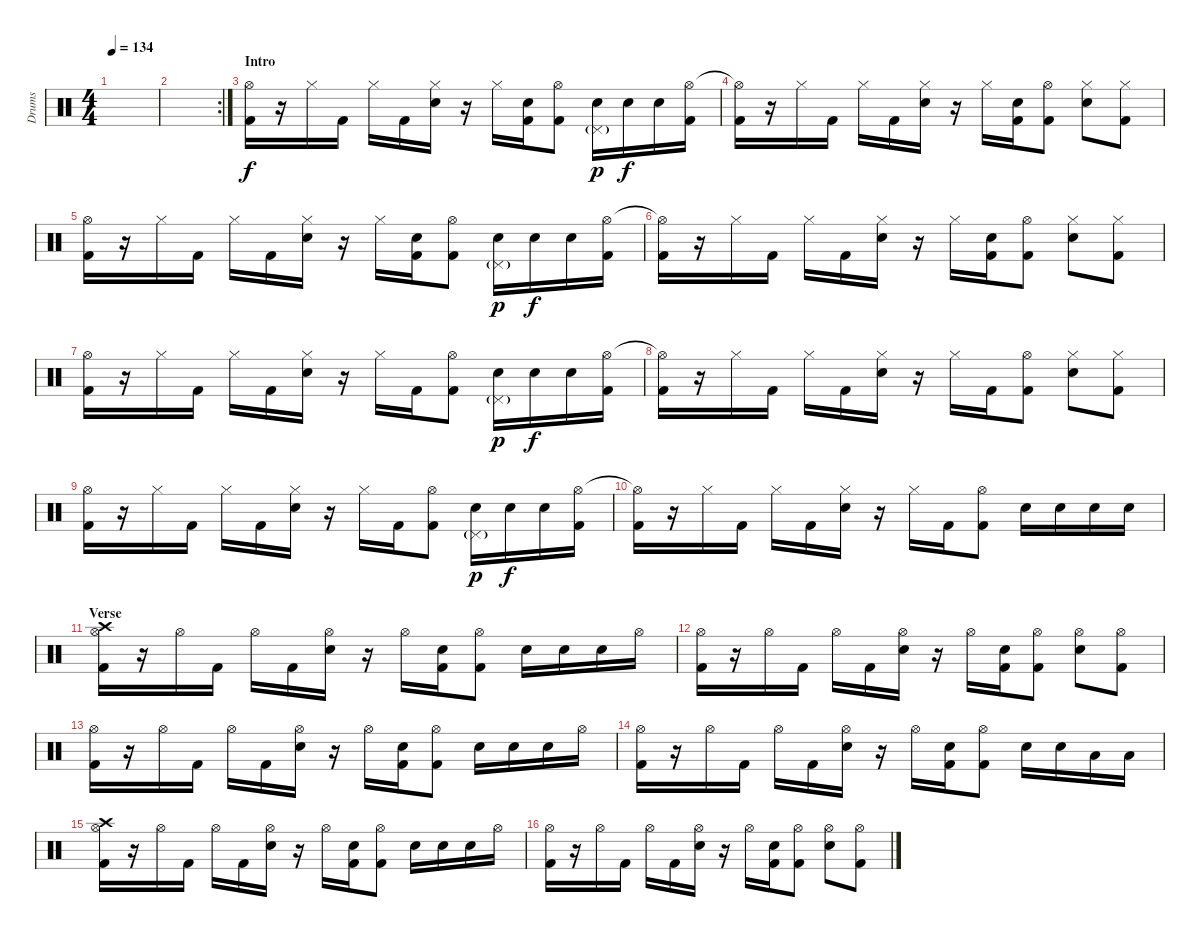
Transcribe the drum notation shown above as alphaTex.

\track ("Drums" "Drums") {instrument percussion}
\staff {score}
\articulation defaults
\ts (4 4)
\tempo 134
\clef neutral
\ks c
|
\rc 2
|
\section ("" "Intro")
("Hi-Hat (open)" "Kick (hit) 2").16 r.16 "Hi-Hat (closed)".16 "Kick (hit) 2".16 "Hi-Hat (closed)".16 "Kick (hit) 2".16 ("Hi-Hat (closed)" "Electric Snare (hit)").16 r.16 "Hi-Hat (closed)".16 ("Electric Snare (hit)" "Kick (hit) 2").16 ("Hi-Hat (open)" "Kick (hit) 2").8 ("Pedal Hi-Hat (hit)"{g} "Electric Snare (hit)").16{dy p} "Electric Snare (hit)".16{dy f} "Electric Snare (hit)".16 ("Hi-Hat (open)" "Kick (hit) 2").16 |
("Hi-Hat (open)"{t} "Kick (hit) 2").16 r.16 "Hi-Hat (closed)".16 "Kick (hit) 2".16 "Hi-Hat (closed)".16 "Kick (hit) 2".16 ("Hi-Hat (closed)" "Electric Snare (hit)").16 r.16 "Hi-Hat (closed)".16 ("Electric Snare (hit)" "Kick (hit) 2").16 ("Hi-Hat (open)" "Kick (hit) 2").8 ("Hi-Hat (closed)" "Electric Snare (hit)").8 ("Hi-Hat (closed)" "Kick (hit) 2").8 |
("Hi-Hat (open)" "Kick (hit) 2").16 r.16 "Hi-Hat (closed)".16 "Kick (hit) 2".16 "Hi-Hat (closed)".16 "Kick (hit) 2".16 ("Hi-Hat (closed)" "Electric Snare (hit)").16 r.16 "Hi-Hat (closed)".16 ("Electric Snare (hit)" "Kick (hit) 2").16 ("Hi-Hat (open)" "Kick (hit) 2").8 ("Pedal Hi-Hat (hit)"{g} "Electric Snare (hit)").16{dy p} "Electric Snare (hit)".16{dy f} "Electric Snare (hit)".16 ("Hi-Hat (open)" "Kick (hit) 2").16 |
("Hi-Hat (open)"{t} "Kick (hit) 2").16 r.16 "Hi-Hat (closed)".16 "Kick (hit) 2".16 "Hi-Hat (closed)".16 "Kick (hit) 2".16 ("Hi-Hat (closed)" "Electric Snare (hit)").16 r.16 "Hi-Hat (closed)".16 ("Electric Snare (hit)" "Kick (hit) 2").16 ("Hi-Hat (open)" "Kick (hit) 2").8 ("Hi-Hat (closed)" "Electric Snare (hit)").8 ("Hi-Hat (closed)" "Kick (hit) 2").8 |
("Hi-Hat (open)" "Kick (hit) 2").16 r.16 "Hi-Hat (closed)".16 "Kick (hit) 2".16 "Hi-Hat (closed)".16 "Kick (hit) 2".16 ("Hi-Hat (closed)" "Electric Snare (hit)").16 r.16 "Hi-Hat (closed)".16 "Kick (hit) 2".16 ("Hi-Hat (open)" "Kick (hit) 2").8 ("Pedal Hi-Hat (hit)"{g} "Electric Snare (hit)").16{dy p} "Electric Snare (hit)".16{dy f} "Electric Snare (hit)".16 ("Hi-Hat (open)" "Kick (hit) 2").16 |
("Hi-Hat (open)"{t} "Kick (hit) 2").16 r.16 "Hi-Hat (closed)".16 "Kick (hit) 2".16 "Hi-Hat (closed)".16 "Kick (hit) 2".16 ("Hi-Hat (closed)" "Electric Snare (hit)").16 r.16 "Hi-Hat (closed)".16 "Kick (hit) 2".16 ("Hi-Hat (open)" "Kick (hit) 2").8 ("Hi-Hat (closed)" "Electric Snare (hit)").8 ("Hi-Hat (closed)" "Kick (hit) 2").8 |
("Hi-Hat (open)" "Kick (hit) 2").16 r.16 "Hi-Hat (closed)".16 "Kick (hit) 2".16 "Hi-Hat (closed)".16 "Kick (hit) 2".16 ("Hi-Hat (closed)" "Electric Snare (hit)").16 r.16 "Hi-Hat (closed)".16 "Kick (hit) 2".16 ("Hi-Hat (open)" "Kick (hit) 2").8 ("Pedal Hi-Hat (hit)"{g} "Electric Snare (hit)").16{dy p} "Electric Snare (hit)".16{dy f} "Electric Snare (hit)".16 ("Hi-Hat (open)" "Kick (hit) 2").16 |
("Hi-Hat (open)"{t} "Kick (hit) 2").16 r.16 "Hi-Hat (closed)".16 "Kick (hit) 2".16 "Hi-Hat (closed)".16 "Kick (hit) 2".16 ("Hi-Hat (closed)" "Electric Snare (hit)").16 r.16 "Hi-Hat (closed)".16 "Kick (hit) 2".16 ("Hi-Hat (open)" "Kick (hit) 2").8 "Electric Snare (hit)".16 "Electric Snare (hit)".16 "Electric Snare (hit)".16 "Electric Snare (hit)".16 |
\section ("" "Verse")
("Crash high (hit)" "Hi-Hat (open)" "Kick (hit) 2").16 r.16 "Hi-Hat (open)".16 "Kick (hit) 2".16 "Hi-Hat (open)".16 "Kick (hit) 2".16 ("Hi-Hat (open)" "Electric Snare (hit)").16 r.16 "Hi-Hat (open)".16 ("Electric Snare (hit)" "Kick (hit) 2").16 ("Hi-Hat (open)" "Kick (hit) 2").8 "Electric Snare (hit)".16 "Electric Snare (hit)".16 "Electric Snare (hit)".16 "Hi-Hat (open)".16 |
("Hi-Hat (open)" "Kick (hit) 2").16 r.16 "Hi-Hat (open)".16 "Kick (hit) 2".16 "Hi-Hat (open)".16 "Kick (hit) 2".16 ("Hi-Hat (open)" "Electric Snare (hit)").16 r.16 "Hi-Hat (open)".16 ("Electric Snare (hit)" "Kick (hit) 2").16 ("Hi-Hat (open)" "Kick (hit) 2").8 ("Hi-Hat (open)" "Electric Snare (hit)").8 ("Hi-Hat (open)" "Kick (hit) 2").8 |
("Hi-Hat (open)" "Kick (hit) 2").16 r.16 "Hi-Hat (open)".16 "Kick (hit) 2".16 "Hi-Hat (open)".16 "Kick (hit) 2".16 ("Hi-Hat (open)" "Electric Snare (hit)").16 r.16 "Hi-Hat (open)".16 ("Electric Snare (hit)" "Kick (hit) 2").16 ("Hi-Hat (open)" "Kick (hit) 2").8 "Electric Snare (hit)".16 "Electric Snare (hit)".16 "Electric Snare (hit)".16 "Hi-Hat (open)".16 |
("Hi-Hat (open)" "Kick (hit) 2").16 r.16 "Hi-Hat (open)".16 "Kick (hit) 2".16 "Hi-Hat (open)".16 "Kick (hit) 2".16 ("Hi-Hat (open)" "Electric Snare (hit)").16 r.16 "Hi-Hat (open)".16 ("Electric Snare (hit)" "Kick (hit) 2").16 ("Hi-Hat (open)" "Kick (hit) 2").8 "Electric Snare (hit)".16 "Electric Snare (hit)".16 "Low Tom (hit)".16 "Low Tom (hit)".16 |
("Crash high (hit)" "Hi-Hat (open)" "Kick (hit) 2").16 r.16 "Hi-Hat (open)".16 "Kick (hit) 2".16 "Hi-Hat (open)".16 "Kick (hit) 2".16 ("Hi-Hat (open)" "Electric Snare (hit)").16 r.16 "Hi-Hat (open)".16 ("Electric Snare (hit)" "Kick (hit) 2").16 ("Hi-Hat (open)" "Kick (hit) 2").8 "Electric Snare (hit)".16 "Electric Snare (hit)".16 "Electric Snare (hit)".16 "Hi-Hat (open)".16 |
("Hi-Hat (open)" "Kick (hit) 2").16 r.16 "Hi-Hat (open)".16 "Kick (hit) 2".16 "Hi-Hat (open)".16 "Kick (hit) 2".16 ("Hi-Hat (open)" "Electric Snare (hit)").16 r.16 "Hi-Hat (open)".16 ("Electric Snare (hit)" "Kick (hit) 2").16 ("Hi-Hat (open)" "Kick (hit) 2").8 ("Hi-Hat (open)" "Electric Snare (hit)").8 ("Hi-Hat (open)" "Kick (hit) 2").8
